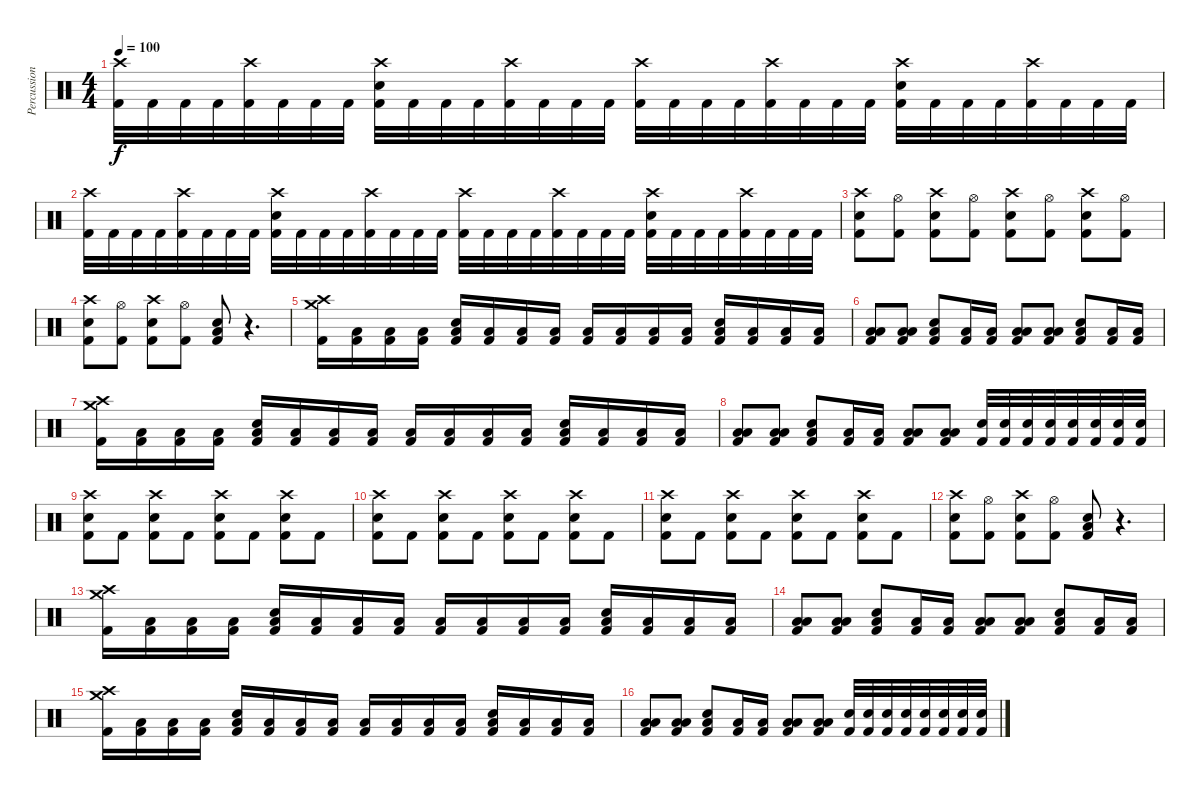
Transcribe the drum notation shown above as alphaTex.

\track ("Percussion" "Percussion") {instrument percussion}
\staff {score}
\articulation defaults
\ts (4 4)
\tempo 100
\clef neutral
\ks c
("Crash high (hit)" "Kick (hit) 2").32{dy f} "Kick (hit) 2".32 "Kick (hit) 2".32 "Kick (hit) 2".32 ("Crash high (hit)" "Kick (hit) 2").32 "Kick (hit) 2".32 "Kick (hit) 2".32 "Kick (hit) 2".32 ("Electric Snare (hit)" "Crash high (hit)" "Kick (hit) 2").32 "Kick (hit) 2".32 "Kick (hit) 2".32 "Kick (hit) 2".32 ("Crash high (hit)" "Kick (hit) 2").32 "Kick (hit) 2".32 "Kick (hit) 2".32 "Kick (hit) 2".32 ("Crash high (hit)" "Kick (hit) 2").32 "Kick (hit) 2".32 "Kick (hit) 2".32 "Kick (hit) 2".32 ("Crash high (hit)" "Kick (hit) 2").32 "Kick (hit) 2".32 "Kick (hit) 2".32 "Kick (hit) 2".32 ("Electric Snare (hit)" "Crash high (hit)" "Kick (hit) 2").32 "Kick (hit) 2".32 "Kick (hit) 2".32 "Kick (hit) 2".32 ("Crash high (hit)" "Kick (hit) 2").32 "Kick (hit) 2".32 "Kick (hit) 2".32 "Kick (hit) 2".32 |
("Crash high (hit)" "Kick (hit) 2").32 "Kick (hit) 2".32 "Kick (hit) 2".32 "Kick (hit) 2".32 ("Crash high (hit)" "Kick (hit) 2").32 "Kick (hit) 2".32 "Kick (hit) 2".32 "Kick (hit) 2".32 ("Electric Snare (hit)" "Crash high (hit)" "Kick (hit) 2").32 "Kick (hit) 2".32 "Kick (hit) 2".32 "Kick (hit) 2".32 ("Crash high (hit)" "Kick (hit) 2").32 "Kick (hit) 2".32 "Kick (hit) 2".32 "Kick (hit) 2".32 ("Crash high (hit)" "Kick (hit) 2").32 "Kick (hit) 2".32 "Kick (hit) 2".32 "Kick (hit) 2".32 ("Crash high (hit)" "Kick (hit) 2").32 "Kick (hit) 2".32 "Kick (hit) 2".32 "Kick (hit) 2".32 ("Electric Snare (hit)" "Crash high (hit)" "Kick (hit) 2").32 "Kick (hit) 2".32 "Kick (hit) 2".32 "Kick (hit) 2".32 ("Crash high (hit)" "Kick (hit) 2").32 "Kick (hit) 2".32 "Kick (hit) 2".32 "Kick (hit) 2".32 |
("Crash high (hit)" "Electric Snare (hit)" "Kick (hit) 2").8 ("Hi-Hat (open)" "Kick (hit) 2").8 ("Crash high (hit)" "Electric Snare (hit)" "Kick (hit) 2").8 ("Hi-Hat (open)" "Kick (hit) 2").8 ("Crash high (hit)" "Electric Snare (hit)" "Kick (hit) 2").8 ("Hi-Hat (open)" "Kick (hit) 2").8 ("Crash high (hit)" "Electric Snare (hit)" "Kick (hit) 2").8 ("Hi-Hat (open)" "Kick (hit) 2").8 |
("Crash high (hit)" "Electric Snare (hit)" "Kick (hit) 2").8 ("Hi-Hat (open)" "Kick (hit) 2").8 ("Crash high (hit)" "Electric Snare (hit)" "Kick (hit) 2").8 ("Hi-Hat (open)" "Kick (hit) 2").8 ("Low Floor Tom (hit)" "Electric Snare (hit)" "Kick (hit) 2").8 r.4{d} |
("Crash medium (hit)" "Crash high (hit)" "Kick (hit) 2").16 ("Low Floor Tom (hit)" "Kick (hit) 2").16 ("Low Floor Tom (hit)" "Kick (hit) 2").16 ("Low Floor Tom (hit)" "Kick (hit) 2").16 ("Electric Snare (hit)" "Low Floor Tom (hit)" "Kick (hit) 2").16 ("Low Floor Tom (hit)" "Kick (hit) 2").16 ("Low Floor Tom (hit)" "Kick (hit) 2").16 ("Low Floor Tom (hit)" "Kick (hit) 2").16 ("Low Floor Tom (hit)" "Kick (hit) 2").16 ("Low Floor Tom (hit)" "Kick (hit) 2").16 ("Low Floor Tom (hit)" "Kick (hit) 2").16 ("Low Floor Tom (hit)" "Kick (hit) 2").16 ("Electric Snare (hit)" "Low Floor Tom (hit)" "Kick (hit) 2").16 ("Low Floor Tom (hit)" "Kick (hit) 2").16 ("Low Floor Tom (hit)" "Kick (hit) 2").16 ("Low Floor Tom (hit)" "Kick (hit) 2").16 |
("Low Floor Tom (hit)" "Low Floor Tom (hit)" "Kick (hit) 2").8 ("Low Floor Tom (hit)" "Low Floor Tom (hit)" "Kick (hit) 2").8 ("Electric Snare (hit)" "Low Floor Tom (hit)" "Kick (hit) 2").8 ("Low Floor Tom (hit)" "Kick (hit) 2").16 ("Low Floor Tom (hit)" "Kick (hit) 2").16 ("Low Floor Tom (hit)" "Low Floor Tom (hit)" "Kick (hit) 2").8 ("Low Floor Tom (hit)" "Low Floor Tom (hit)" "Kick (hit) 2").8 ("Electric Snare (hit)" "Low Floor Tom (hit)" "Kick (hit) 2").8 ("Low Floor Tom (hit)" "Kick (hit) 2").16 ("Low Floor Tom (hit)" "Kick (hit) 2").16 |
("Crash medium (hit)" "Crash high (hit)" "Kick (hit) 2").16 ("Low Floor Tom (hit)" "Kick (hit) 2").16 ("Low Floor Tom (hit)" "Kick (hit) 2").16 ("Low Floor Tom (hit)" "Kick (hit) 2").16 ("Electric Snare (hit)" "Low Floor Tom (hit)" "Kick (hit) 2").16 ("Low Floor Tom (hit)" "Kick (hit) 2").16 ("Low Floor Tom (hit)" "Kick (hit) 2").16 ("Low Floor Tom (hit)" "Kick (hit) 2").16 ("Low Floor Tom (hit)" "Kick (hit) 2").16 ("Low Floor Tom (hit)" "Kick (hit) 2").16 ("Low Floor Tom (hit)" "Kick (hit) 2").16 ("Low Floor Tom (hit)" "Kick (hit) 2").16 ("Electric Snare (hit)" "Low Floor Tom (hit)" "Kick (hit) 2").16 ("Low Floor Tom (hit)" "Kick (hit) 2").16 ("Low Floor Tom (hit)" "Kick (hit) 2").16 ("Low Floor Tom (hit)" "Kick (hit) 2").16 |
("Low Floor Tom (hit)" "Low Floor Tom (hit)" "Kick (hit) 2").8 ("Low Floor Tom (hit)" "Low Floor Tom (hit)" "Kick (hit) 2").8 ("Electric Snare (hit)" "Low Floor Tom (hit)" "Kick (hit) 2").8 ("Low Floor Tom (hit)" "Kick (hit) 2").16 ("Low Floor Tom (hit)" "Kick (hit) 2").16 ("Low Floor Tom (hit)" "Low Floor Tom (hit)" "Kick (hit) 2").8 ("Low Floor Tom (hit)" "Low Floor Tom (hit)" "Kick (hit) 2").8 ("Electric Snare (hit)" "Kick (hit) 2").32 ("Electric Snare (hit)" "Kick (hit) 2").32 ("Electric Snare (hit)" "Kick (hit) 2").32 ("Electric Snare (hit)" "Kick (hit) 2").32 ("Electric Snare (hit)" "Kick (hit) 2").32 ("Electric Snare (hit)" "Kick (hit) 2").32 ("Electric Snare (hit)" "Kick (hit) 2").32 ("Electric Snare (hit)" "Kick (hit) 2").32 |
("Crash high (hit)" "Electric Snare (hit)" "Kick (hit) 2").8 "Kick (hit) 2".8 ("Crash high (hit)" "Electric Snare (hit)" "Kick (hit) 2").8 "Kick (hit) 2".8 ("Crash high (hit)" "Electric Snare (hit)" "Kick (hit) 2").8 "Kick (hit) 2".8 ("Crash high (hit)" "Electric Snare (hit)" "Kick (hit) 2").8 "Kick (hit) 2".8 |
("Crash high (hit)" "Electric Snare (hit)" "Kick (hit) 2").8 "Kick (hit) 2".8 ("Crash high (hit)" "Electric Snare (hit)" "Kick (hit) 2").8 "Kick (hit) 2".8 ("Crash high (hit)" "Electric Snare (hit)" "Kick (hit) 2").8 "Kick (hit) 2".8 ("Crash high (hit)" "Electric Snare (hit)" "Kick (hit) 2").8 "Kick (hit) 2".8 |
("Crash high (hit)" "Electric Snare (hit)" "Kick (hit) 2").8 "Kick (hit) 2".8 ("Crash high (hit)" "Electric Snare (hit)" "Kick (hit) 2").8 "Kick (hit) 2".8 ("Crash high (hit)" "Electric Snare (hit)" "Kick (hit) 2").8 "Kick (hit) 2".8 ("Crash high (hit)" "Electric Snare (hit)" "Kick (hit) 2").8 "Kick (hit) 2".8 |
("Crash high (hit)" "Electric Snare (hit)" "Kick (hit) 2").8 ("Hi-Hat (open)" "Kick (hit) 2").8 ("Crash high (hit)" "Electric Snare (hit)" "Kick (hit) 2").8 ("Hi-Hat (open)" "Kick (hit) 2").8 ("Low Floor Tom (hit)" "Electric Snare (hit)" "Kick (hit) 2").8 r.4{d} |
("Crash medium (hit)" "Crash high (hit)" "Kick (hit) 2").16 ("Low Floor Tom (hit)" "Kick (hit) 2").16 ("Low Floor Tom (hit)" "Kick (hit) 2").16 ("Low Floor Tom (hit)" "Kick (hit) 2").16 ("Electric Snare (hit)" "Low Floor Tom (hit)" "Kick (hit) 2").16 ("Low Floor Tom (hit)" "Kick (hit) 2").16 ("Low Floor Tom (hit)" "Kick (hit) 2").16 ("Low Floor Tom (hit)" "Kick (hit) 2").16 ("Low Floor Tom (hit)" "Kick (hit) 2").16 ("Low Floor Tom (hit)" "Kick (hit) 2").16 ("Low Floor Tom (hit)" "Kick (hit) 2").16 ("Low Floor Tom (hit)" "Kick (hit) 2").16 ("Electric Snare (hit)" "Low Floor Tom (hit)" "Kick (hit) 2").16 ("Low Floor Tom (hit)" "Kick (hit) 2").16 ("Low Floor Tom (hit)" "Kick (hit) 2").16 ("Low Floor Tom (hit)" "Kick (hit) 2").16 |
("Low Floor Tom (hit)" "Low Floor Tom (hit)" "Kick (hit) 2").8 ("Low Floor Tom (hit)" "Low Floor Tom (hit)" "Kick (hit) 2").8 ("Electric Snare (hit)" "Low Floor Tom (hit)" "Kick (hit) 2").8 ("Low Floor Tom (hit)" "Kick (hit) 2").16 ("Low Floor Tom (hit)" "Kick (hit) 2").16 ("Low Floor Tom (hit)" "Low Floor Tom (hit)" "Kick (hit) 2").8 ("Low Floor Tom (hit)" "Low Floor Tom (hit)" "Kick (hit) 2").8 ("Electric Snare (hit)" "Low Floor Tom (hit)" "Kick (hit) 2").8 ("Low Floor Tom (hit)" "Kick (hit) 2").16 ("Low Floor Tom (hit)" "Kick (hit) 2").16 |
("Crash medium (hit)" "Crash high (hit)" "Kick (hit) 2").16 ("Low Floor Tom (hit)" "Kick (hit) 2").16 ("Low Floor Tom (hit)" "Kick (hit) 2").16 ("Low Floor Tom (hit)" "Kick (hit) 2").16 ("Electric Snare (hit)" "Low Floor Tom (hit)" "Kick (hit) 2").16 ("Low Floor Tom (hit)" "Kick (hit) 2").16 ("Low Floor Tom (hit)" "Kick (hit) 2").16 ("Low Floor Tom (hit)" "Kick (hit) 2").16 ("Low Floor Tom (hit)" "Kick (hit) 2").16 ("Low Floor Tom (hit)" "Kick (hit) 2").16 ("Low Floor Tom (hit)" "Kick (hit) 2").16 ("Low Floor Tom (hit)" "Kick (hit) 2").16 ("Electric Snare (hit)" "Low Floor Tom (hit)" "Kick (hit) 2").16 ("Low Floor Tom (hit)" "Kick (hit) 2").16 ("Low Floor Tom (hit)" "Kick (hit) 2").16 ("Low Floor Tom (hit)" "Kick (hit) 2").16 |
("Low Floor Tom (hit)" "Low Floor Tom (hit)" "Kick (hit) 2").8 ("Low Floor Tom (hit)" "Low Floor Tom (hit)" "Kick (hit) 2").8 ("Electric Snare (hit)" "Low Floor Tom (hit)" "Kick (hit) 2").8 ("Low Floor Tom (hit)" "Kick (hit) 2").16 ("Low Floor Tom (hit)" "Kick (hit) 2").16 ("Low Floor Tom (hit)" "Low Floor Tom (hit)" "Kick (hit) 2").8 ("Low Floor Tom (hit)" "Low Floor Tom (hit)" "Kick (hit) 2").8 ("Electric Snare (hit)" "Kick (hit) 2").32 ("Electric Snare (hit)" "Kick (hit) 2").32 ("Electric Snare (hit)" "Kick (hit) 2").32 ("Electric Snare (hit)" "Kick (hit) 2").32 ("Electric Snare (hit)" "Kick (hit) 2").32 ("Electric Snare (hit)" "Kick (hit) 2").32 ("Electric Snare (hit)" "Kick (hit) 2").32 ("Electric Snare (hit)" "Kick (hit) 2").32
